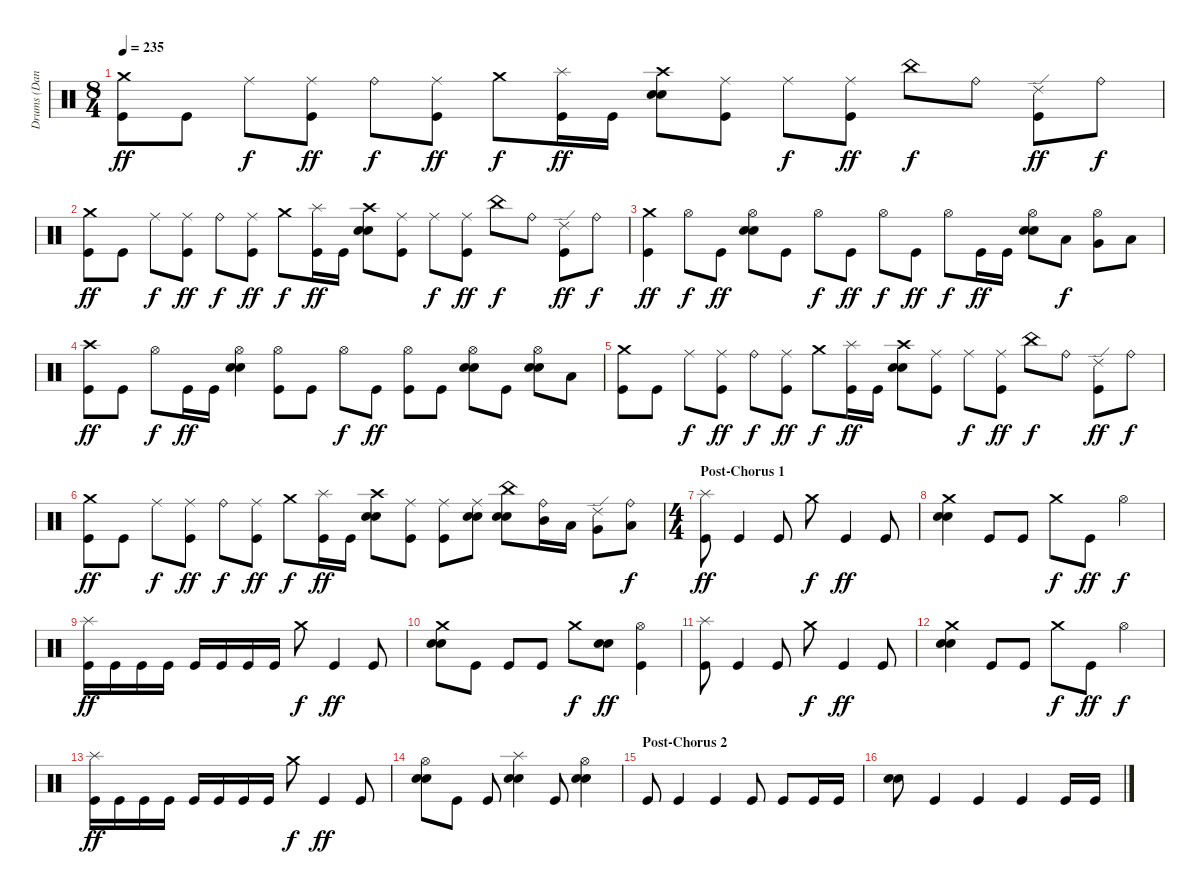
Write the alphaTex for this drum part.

\track ("Drums (Dan)" "Drums (Dan") {instrument percussion}
\staff {score}
\articulation defaults
\ts (8 4)
\tempo 235
\clef neutral
\ks c
("Kick (hit)" "Crash medium (hit)").8{dy ff} "Kick (hit)".8 "Ride (middle)".8{dy f} ("Kick (hit)" "Ride (middle)").8{dy ff} "Ride (bell)".8{dy f} ("Kick (hit)" "Ride (middle)").8{dy ff} "Crash medium (hit)".8{dy f} ("Kick (hit)" "Splash (hit)").16{dy ff} "Kick (hit)".16 ("Electric Snare (hit)" "Electric Snare (hit)" "Crash high (hit)").8 ("Kick (hit)" "Ride (middle)").8 "Ride (middle)".8{dy f} ("Kick (hit)" "Ride (middle)").8{dy ff} "China (hit)".8{dy f} "Ride (bell)".8 ("Kick (hit)" "Ride (edge) 2").8{dy ff} "Ride (bell)".8{dy f} |
("Kick (hit)" "Crash medium (hit)").8{dy ff} "Kick (hit)".8 "Ride (middle)".8{dy f} ("Kick (hit)" "Ride (middle)").8{dy ff} "Ride (bell)".8{dy f} ("Kick (hit)" "Ride (middle)").8{dy ff} "Crash medium (hit)".8{dy f} ("Kick (hit)" "Splash (hit)").16{dy ff} "Kick (hit)".16 ("Electric Snare (hit)" "Electric Snare (hit)" "Crash high (hit)").8 ("Kick (hit)" "Ride (middle)").8 "Ride (middle)".8{dy f} ("Kick (hit)" "Ride (middle)").8{dy ff} "China (hit)".8{dy f} "Ride (bell)".8 ("Kick (hit)" "Ride (edge) 2").8{dy ff} "Ride (bell)".8{dy f} |
("Kick (hit)" "Crash medium (hit)").4{dy ff} "Hi-Hat (open)".8{dy f} "Kick (hit)".8{dy ff} ("Electric Snare (hit)" "Electric Snare (hit)" "Hi-Hat (open)").8 "Kick (hit)".8 "Hi-Hat (open)".8{dy f} "Kick (hit)".8{dy ff} "Hi-Hat (open)".8{dy f} "Kick (hit)".8{dy ff} "Hi-Hat (open)".8{dy f} "Kick (hit)".16{dy ff} "Kick (hit)".16 ("Electric Snare (hit)" "Electric Snare (hit)" "Hi-Hat (open)").8 "Low Tom (hit)".8{dy f} ("Very Low Tom (hit)" "Hi-Hat (open)").8 "Low Floor Tom (hit)".8 |
("Kick (hit)" "Crash high (hit)").8{dy ff} "Kick (hit)".8 "Hi-Hat (open)".8{dy f} "Kick (hit)".16{dy ff} "Kick (hit)".16 ("Electric Snare (hit)" "Electric Snare (hit)" "Hi-Hat (open)").4 ("Kick (hit)" "Hi-Hat (open)").8 "Kick (hit)".8 "Hi-Hat (open)".8{dy f} "Kick (hit)".8{dy ff} ("Kick (hit)" "Hi-Hat (open)").8 "Kick (hit)".8 ("Electric Snare (hit)" "Electric Snare (hit)" "Hi-Hat (open)").8 "Kick (hit)".8 ("Electric Snare (hit)" "Electric Snare (hit)" "Hi-Hat (open)").8 "Low Floor Tom (hit)".8 |
("Kick (hit)" "Crash medium (hit)").8 "Kick (hit)".8 "Ride (middle)".8{dy f} ("Kick (hit)" "Ride (middle)").8{dy ff} "Ride (bell)".8{dy f} ("Kick (hit)" "Ride (middle)").8{dy ff} "Crash medium (hit)".8{dy f} ("Kick (hit)" "Splash (hit)").16{dy ff} "Kick (hit)".16 ("Electric Snare (hit)" "Electric Snare (hit)" "Crash high (hit)").8 ("Kick (hit)" "Ride (middle)").8 "Ride (middle)".8{dy f} ("Kick (hit)" "Ride (middle)").8{dy ff} "China (hit)".8{dy f} "Ride (bell)".8 ("Kick (hit)" "Ride (edge) 2").8{dy ff} "Ride (bell)".8{dy f} |
("Kick (hit)" "Crash medium (hit)").8{dy ff} "Kick (hit)".8 "Ride (middle)".8{dy f} ("Kick (hit)" "Ride (middle)").8{dy ff} "Ride (bell)".8{dy f} ("Kick (hit)" "Ride (middle)").8{dy ff} "Crash medium (hit)".8{dy f} ("Kick (hit)" "Splash (hit)").16{dy ff} "Kick (hit)".16 ("Electric Snare (hit)" "Electric Snare (hit)" "Crash high (hit)").8 ("Kick (hit)" "Ride (middle)").8 ("Kick (hit)" "Ride (middle)").8 ("Electric Snare (hit)" "Electric Snare (hit)" "Ride (middle)").8 ("Electric Snare (hit)" "Electric Snare (hit)" "China (hit)").8 ("Mid Tom (hit)" "Ride (bell)").16 "Low Tom (hit)".16 ("Very Low Tom (hit)" "Ride (edge) 2").8 ("Low Floor Tom (hit)" "Ride (bell)").8{dy f} |
\ts (4 4)
\section ("" "Post-Chorus 1")
("Kick (hit)" "Splash (hit)").8{dy ff} "Kick (hit)".4 "Kick (hit)".8 "Crash medium (hit)".8{dy f} "Kick (hit)".4{dy ff} "Kick (hit)".8 |
("Electric Snare (hit)" "Electric Snare (hit)" "Crash medium (hit)").4 "Kick (hit)".8 "Kick (hit)".8 "Crash medium (hit)".8{dy f} "Kick (hit)".8{dy ff} "Hi-Hat (open)".4{dy f} |
("Kick (hit)" "Splash (hit)").16{dy ff} "Kick (hit)".16 "Kick (hit)".16 "Kick (hit)".16 "Kick (hit)".16 "Kick (hit)".16 "Kick (hit)".16 "Kick (hit)".16 "Crash medium (hit)".8{dy f} "Kick (hit)".4{dy ff} "Kick (hit)".8 |
("Electric Snare (hit)" "Electric Snare (hit)" "Crash medium (hit)").8 "Kick (hit)".8 "Kick (hit)".8 "Kick (hit)".8 "Crash medium (hit)".8{dy f} ("Electric Snare (hit)" "Electric Snare (hit)").8{dy ff} ("Kick (hit)" "Hi-Hat (open)").4 |
("Kick (hit)" "Splash (hit)").8 "Kick (hit)".4 "Kick (hit)".8 "Crash medium (hit)".8{dy f} "Kick (hit)".4{dy ff} "Kick (hit)".8 |
("Electric Snare (hit)" "Electric Snare (hit)" "Crash medium (hit)").4 "Kick (hit)".8 "Kick (hit)".8 "Crash medium (hit)".8{dy f} "Kick (hit)".8{dy ff} "Hi-Hat (open)".4{dy f} |
("Kick (hit)" "Splash (hit)").16{dy ff} "Kick (hit)".16 "Kick (hit)".16 "Kick (hit)".16 "Kick (hit)".16 "Kick (hit)".16 "Kick (hit)".16 "Kick (hit)".16 "Crash medium (hit)".8{dy f} "Kick (hit)".4{dy ff} "Kick (hit)".8 |
("Electric Snare (hit)" "Electric Snare (hit)" "Hi-Hat (open)").8 "Kick (hit)".8 "Kick (hit)".8 ("Electric Snare (hit)" "Electric Snare (hit)" "Splash (hit)").4 "Kick (hit)".8 ("Electric Snare (hit)" "Electric Snare (hit)" "Hi-Hat (open)").4 |
\section ("" "Post-Chorus 2")
"Kick (hit)".8 "Kick (hit)".4 "Kick (hit)".4 "Kick (hit)".8 "Kick (hit)".8 "Kick (hit)".16 "Kick (hit)".16 |
("Electric Snare (hit)" "Electric Snare (hit)").8 "Kick (hit)".4 "Kick (hit)".4 "Kick (hit)".4 "Kick (hit)".16 "Kick (hit)".16
